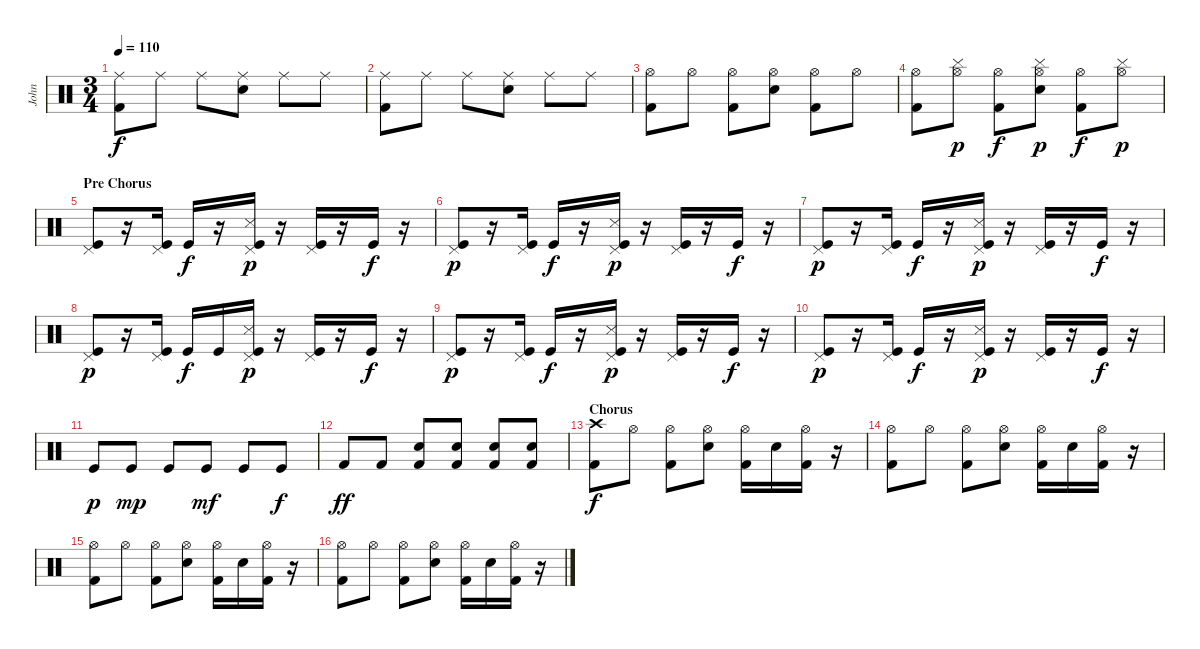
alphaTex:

\track ("John" "John") {instrument percussion}
\staff {score}
\articulation defaults
\ts (3 4)
\tempo 110
\clef neutral
\ks c
("Ride (middle)" "Kick (hit) 2").8{dy f} "Ride (middle)".8 "Ride (middle)".8 ("Ride (middle)" "Electric Snare (hit)").8 "Ride (middle)".8 "Ride (middle)".8 |
("Ride (middle)" "Kick (hit) 2").8 "Ride (middle)".8 "Ride (middle)".8 ("Ride (middle)" "Electric Snare (hit)").8 "Ride (middle)".8 "Ride (middle)".8 |
("Hi-Hat (open)" "Kick (hit) 2").8 "Hi-Hat (open)".8 ("Hi-Hat (open)" "Kick (hit) 2").8 ("Hi-Hat (open)" "Electric Snare (hit)").8 ("Hi-Hat (open)" "Kick (hit) 2").8 "Hi-Hat (open)".8 |
("Hi-Hat (open)" "Kick (hit) 2").8 ("Hi-Hat (open)" "Cymbal (hit)").8{dy p} ("Hi-Hat (open)" "Kick (hit) 2").8{dy f} ("Hi-Hat (open)" "Cymbal (hit)" "Electric Snare (hit)").8{dy p} ("Hi-Hat (open)" "Kick (hit) 2").8{dy f} ("Hi-Hat (open)" "Cymbal (hit)").8{dy p} |
\section ("" "Pre Chorus")
("Pedal Hi-Hat (hit)" "Kick (hit)").8 r.16 ("Pedal Hi-Hat (hit)" "Kick (hit)").16 "Kick (hit)".16{dy f} r.16 ("Pedal Hi-Hat (hit)" "Snare (side stick) 3" "Kick (hit)").16{dy p} r.16 ("Pedal Hi-Hat (hit)" "Kick (hit)").16 r.16 "Kick (hit)".16{dy f} r.16 |
("Pedal Hi-Hat (hit)" "Kick (hit)").8{dy p} r.16 ("Pedal Hi-Hat (hit)" "Kick (hit)").16 "Kick (hit)".16{dy f} r.16 ("Pedal Hi-Hat (hit)" "Snare (side stick) 3" "Kick (hit)").16{dy p} r.16 ("Pedal Hi-Hat (hit)" "Kick (hit)").16 r.16 "Kick (hit)".16{dy f} r.16 |
("Pedal Hi-Hat (hit)" "Kick (hit)").8{dy p} r.16 ("Pedal Hi-Hat (hit)" "Kick (hit)").16 "Kick (hit)".16{dy f} r.16 ("Pedal Hi-Hat (hit)" "Snare (side stick) 3" "Kick (hit)").16{dy p} r.16 ("Pedal Hi-Hat (hit)" "Kick (hit)").16 r.16 "Kick (hit)".16{dy f} r.16 |
("Pedal Hi-Hat (hit)" "Kick (hit)").8{dy p} r.16 ("Pedal Hi-Hat (hit)" "Kick (hit)").16 "Kick (hit)".16{dy f} "Kick (hit)".16 ("Pedal Hi-Hat (hit)" "Snare (side stick) 3" "Kick (hit)").16{dy p} r.16 ("Pedal Hi-Hat (hit)" "Kick (hit)").16 r.16 "Kick (hit)".16{dy f} r.16 |
("Pedal Hi-Hat (hit)" "Kick (hit)").8{dy p} r.16 ("Pedal Hi-Hat (hit)" "Kick (hit)").16 "Kick (hit)".16{dy f} r.16 ("Pedal Hi-Hat (hit)" "Snare (side stick) 3" "Kick (hit)").16{dy p} r.16 ("Pedal Hi-Hat (hit)" "Kick (hit)").16 r.16 "Kick (hit)".16{dy f} r.16 |
("Pedal Hi-Hat (hit)" "Kick (hit)").8{dy p} r.16 ("Pedal Hi-Hat (hit)" "Kick (hit)").16 "Kick (hit)".16{dy f} r.16 ("Pedal Hi-Hat (hit)" "Snare (side stick) 3" "Kick (hit)").16{dy p} r.16 ("Pedal Hi-Hat (hit)" "Kick (hit)").16 r.16 "Kick (hit)".16{dy f} r.16 |
"Kick (hit)".8{dy p} "Kick (hit)".8{dy mp} "Kick (hit)".8 "Kick (hit)".8{dy mf} "Kick (hit)".8 "Kick (hit)".8{dy f} |
"Kick (hit) 2".8{dy ff} "Kick (hit) 2".8 ("Electric Snare (hit)" "Kick (hit) 2").8 ("Electric Snare (hit)" "Kick (hit) 2").8 ("Electric Snare (hit)" "Kick (hit) 2").8 ("Electric Snare (hit)" "Kick (hit) 2").8 |
\section ("" "Chorus")
("Crash high (hit)" "Kick (hit) 2").8{dy f} "Hi-Hat (open)".8 ("Hi-Hat (open)" "Kick (hit) 2").8 ("Hi-Hat (open)" "Electric Snare (hit)").8 ("Hi-Hat (open)" "Kick (hit) 2").16 "Electric Snare (hit)".16 ("Hi-Hat (open)" "Kick (hit) 2").16 r.16 |
("Hi-Hat (open)" "Kick (hit) 2").8 "Hi-Hat (open)".8 ("Hi-Hat (open)" "Kick (hit) 2").8 ("Hi-Hat (open)" "Electric Snare (hit)").8 ("Hi-Hat (open)" "Kick (hit) 2").16 "Electric Snare (hit)".16 ("Hi-Hat (open)" "Kick (hit) 2").16 r.16 |
("Hi-Hat (open)" "Kick (hit) 2").8 "Hi-Hat (open)".8 ("Hi-Hat (open)" "Kick (hit) 2").8 ("Hi-Hat (open)" "Electric Snare (hit)").8 ("Hi-Hat (open)" "Kick (hit) 2").16 "Electric Snare (hit)".16 ("Hi-Hat (open)" "Kick (hit) 2").16 r.16 |
("Hi-Hat (open)" "Kick (hit) 2").8 "Hi-Hat (open)".8 ("Hi-Hat (open)" "Kick (hit) 2").8 ("Hi-Hat (open)" "Electric Snare (hit)").8 ("Hi-Hat (open)" "Kick (hit) 2").16 "Electric Snare (hit)".16 ("Hi-Hat (open)" "Kick (hit) 2").16 r.16
